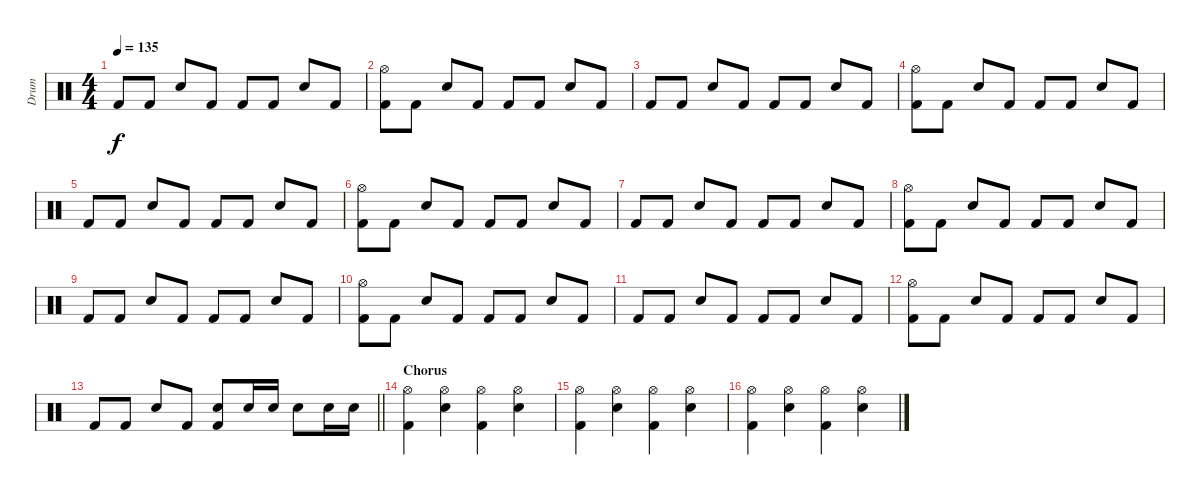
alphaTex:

\track ("Drum" "Drum") {instrument percussion}
\staff {score}
\articulation defaults
\ts (4 4)
\tempo 135
\clef neutral
\ks c "Kick (hit) 2".8{dy f} "Kick (hit) 2".8 "Electric Snare (hit)".8 "Kick (hit) 2".8 "Kick (hit) 2".8 "Kick (hit) 2".8 "Electric Snare (hit)".8 "Kick (hit) 2".8
|
("Hi-Hat (open)" "Kick (hit) 2").8 "Kick (hit) 2".8 "Electric Snare (hit)".8 "Kick (hit) 2".8 "Kick (hit) 2".8 "Kick (hit) 2".8 "Electric Snare (hit)".8 "Kick (hit) 2".8 |
"Kick (hit) 2".8 "Kick (hit) 2".8 "Electric Snare (hit)".8 "Kick (hit) 2".8 "Kick (hit) 2".8 "Kick (hit) 2".8 "Electric Snare (hit)".8 "Kick (hit) 2".8 |
("Hi-Hat (open)" "Kick (hit) 2").8 "Kick (hit) 2".8 "Electric Snare (hit)".8 "Kick (hit) 2".8 "Kick (hit) 2".8 "Kick (hit) 2".8 "Electric Snare (hit)".8 "Kick (hit) 2".8 |
"Kick (hit) 2".8 "Kick (hit) 2".8 "Electric Snare (hit)".8 "Kick (hit) 2".8 "Kick (hit) 2".8 "Kick (hit) 2".8 "Electric Snare (hit)".8 "Kick (hit) 2".8 |
("Hi-Hat (open)" "Kick (hit) 2").8 "Kick (hit) 2".8 "Electric Snare (hit)".8 "Kick (hit) 2".8 "Kick (hit) 2".8 "Kick (hit) 2".8 "Electric Snare (hit)".8 "Kick (hit) 2".8 |
"Kick (hit) 2".8 "Kick (hit) 2".8 "Electric Snare (hit)".8 "Kick (hit) 2".8 "Kick (hit) 2".8 "Kick (hit) 2".8 "Electric Snare (hit)".8 "Kick (hit) 2".8 |
("Hi-Hat (open)" "Kick (hit) 2").8 "Kick (hit) 2".8 "Electric Snare (hit)".8 "Kick (hit) 2".8 "Kick (hit) 2".8 "Kick (hit) 2".8 "Electric Snare (hit)".8 "Kick (hit) 2".8 |
"Kick (hit) 2".8 "Kick (hit) 2".8 "Electric Snare (hit)".8 "Kick (hit) 2".8 "Kick (hit) 2".8 "Kick (hit) 2".8 "Electric Snare (hit)".8 "Kick (hit) 2".8 |
("Hi-Hat (open)" "Kick (hit) 2").8 "Kick (hit) 2".8 "Electric Snare (hit)".8 "Kick (hit) 2".8 "Kick (hit) 2".8 "Kick (hit) 2".8 "Electric Snare (hit)".8 "Kick (hit) 2".8 |
"Kick (hit) 2".8 "Kick (hit) 2".8 "Electric Snare (hit)".8 "Kick (hit) 2".8 "Kick (hit) 2".8 "Kick (hit) 2".8 "Electric Snare (hit)".8 "Kick (hit) 2".8 |
("Hi-Hat (open)" "Kick (hit) 2").8 "Kick (hit) 2".8 "Electric Snare (hit)".8 "Kick (hit) 2".8 "Kick (hit) 2".8 "Kick (hit) 2".8 "Electric Snare (hit)".8 "Kick (hit) 2".8 |
\barLineRight lightlight "Kick (hit) 2".8 "Kick (hit) 2".8 "Electric Snare (hit)".8 "Kick (hit) 2".8
("Electric Snare (hit)" "Kick (hit) 2").8 "Electric Snare (hit)".16 "Electric Snare (hit)".16 "Electric Snare (hit)".8 "Electric Snare (hit)".16 "Electric Snare (hit)".16 |
\section ("" "Chorus")
("Hi-Hat (open)" "Kick (hit) 2").4 ("Hi-Hat (open)" "Electric Snare (hit)").4 ("Hi-Hat (open)" "Kick (hit) 2").4 ("Hi-Hat (open)" "Electric Snare (hit)").4 |
("Hi-Hat (open)" "Kick (hit) 2").4 ("Hi-Hat (open)" "Electric Snare (hit)").4 ("Hi-Hat (open)" "Kick (hit) 2").4 ("Hi-Hat (open)" "Electric Snare (hit)").4 |
("Hi-Hat (open)" "Kick (hit) 2").4 ("Hi-Hat (open)" "Electric Snare (hit)").4 ("Hi-Hat (open)" "Kick (hit) 2").4 ("Hi-Hat (open)" "Electric Snare (hit)").4
